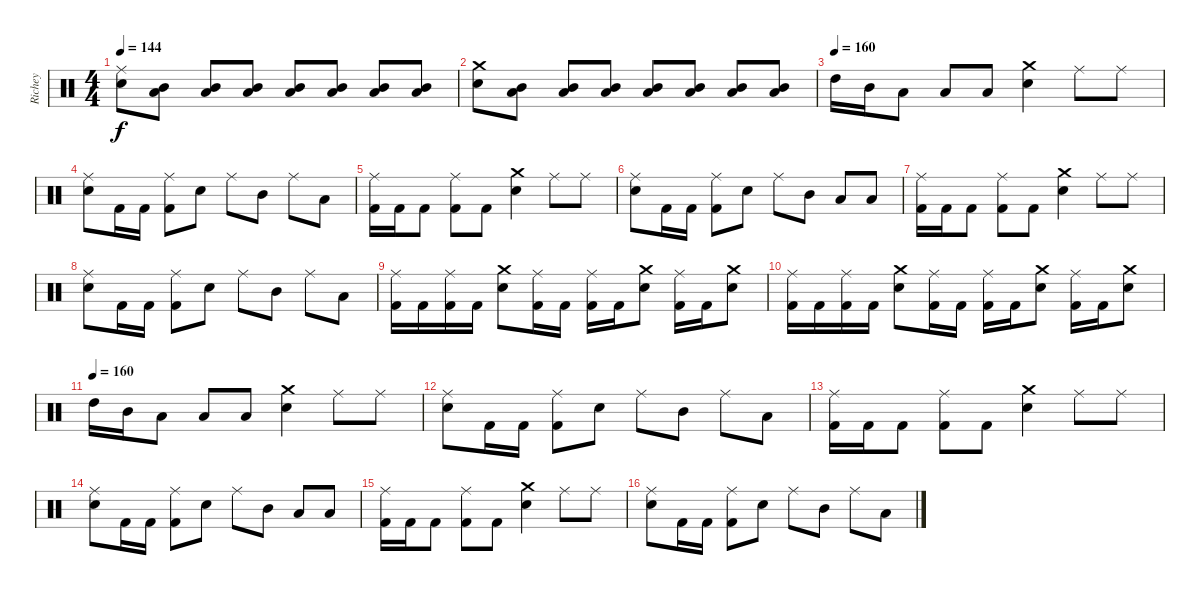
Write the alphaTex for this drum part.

\track ("Richey" "Richey") {instrument percussion}
\staff {score}
\articulation defaults
\ts (4 4)
\tempo 144
\clef neutral
\ks c
("Ride (middle)" "Snare (hit) 2").8{dy f} ("Mid Tom (hit)" "Low Tom (hit)").8 ("Mid Tom (hit)" "Low Tom (hit)").8 ("Mid Tom (hit)" "Low Tom (hit)").8 ("Mid Tom (hit)" "Low Tom (hit)").8 ("Mid Tom (hit)" "Low Tom (hit)").8 ("Mid Tom (hit)" "Low Tom (hit)").8 ("Mid Tom (hit)" "Low Tom (hit)").8 |
("Crash medium (hit)" "Snare (hit) 2").8 ("Mid Tom (hit)" "Low Tom (hit)").8 ("Mid Tom (hit)" "Low Tom (hit)").8 ("Mid Tom (hit)" "Low Tom (hit)").8 ("Mid Tom (hit)" "Low Tom (hit)").8 ("Mid Tom (hit)" "Low Tom (hit)").8 ("Mid Tom (hit)" "Low Tom (hit)").8 ("Mid Tom (hit)" "Low Tom (hit)").8 |
\tempo (160)
"High Tom (hit)".16 "Mid Tom (hit)".16 "Low Tom (hit)".8 "Low Tom (hit)".8 "Low Tom (hit)".8 ("Crash medium (hit)" "Snare (hit) 2").4 "Ride (middle)".8 "Ride (middle)".8 |
("Ride (middle)" "Snare (hit) 2").8 "Kick (hit) 2".16 "Kick (hit) 2".16 ("Ride (middle)" "Kick (hit) 2").8 "Snare (hit) 2".8 "Ride (middle)".8 "Mid Tom (hit)".8 "Ride (middle)".8 "Low Tom (hit)".8 |
("Ride (middle)" "Kick (hit) 2").16 "Kick (hit) 2".16 "Kick (hit) 2".8 ("Ride (middle)" "Kick (hit) 2").8 "Kick (hit) 2".8 ("Crash medium (hit)" "Snare (hit) 2").4 "Ride (middle)".8 "Ride (middle)".8 |
("Ride (middle)" "Snare (hit) 2").8 "Kick (hit) 2".16 "Kick (hit) 2".16 ("Ride (middle)" "Kick (hit) 2").8 "Snare (hit) 2".8 "Ride (middle)".8 "Mid Tom (hit)".8 "Low Tom (hit)".8 "Low Tom (hit)".8 |
("Ride (middle)" "Kick (hit) 2").16 "Kick (hit) 2".16 "Kick (hit) 2".8 ("Ride (middle)" "Kick (hit) 2").8 "Kick (hit) 2".8 ("Crash medium (hit)" "Snare (hit) 2").4 "Ride (middle)".8 "Ride (middle)".8 |
("Ride (middle)" "Snare (hit) 2").8 "Kick (hit) 2".16 "Kick (hit) 2".16 ("Ride (middle)" "Kick (hit) 2").8 "Snare (hit) 2".8 "Ride (middle)".8 "Mid Tom (hit)".8 "Ride (middle)".8 "Low Tom (hit)".8 |
("Ride (middle)" "Kick (hit) 2").16 "Kick (hit) 2".16 ("Ride (middle)" "Kick (hit) 2").16 "Kick (hit) 2".16 ("Crash medium (hit)" "Snare (hit) 2").8 ("Ride (middle)" "Kick (hit) 2").16 "Kick (hit) 2".16 ("Ride (middle)" "Kick (hit) 2").16 "Kick (hit) 2".16 ("Crash medium (hit)" "Snare (hit) 2").8 ("Ride (middle)" "Kick (hit) 2").16 "Kick (hit) 2".16 ("Crash medium (hit)" "Snare (hit) 2").8 |
("Ride (middle)" "Kick (hit) 2").16 "Kick (hit) 2".16 ("Ride (middle)" "Kick (hit) 2").16 "Kick (hit) 2".16 ("Crash medium (hit)" "Snare (hit) 2").8 ("Ride (middle)" "Kick (hit) 2").16 "Kick (hit) 2".16 ("Ride (middle)" "Kick (hit) 2").16 "Kick (hit) 2".16 ("Crash medium (hit)" "Snare (hit) 2").8 ("Ride (middle)" "Kick (hit) 2").16 "Kick (hit) 2".16 ("Crash medium (hit)" "Snare (hit) 2").8 |
\tempo (160)
"High Tom (hit)".16 "Mid Tom (hit)".16 "Low Tom (hit)".8 "Low Tom (hit)".8 "Low Tom (hit)".8 ("Crash medium (hit)" "Snare (hit) 2").4 "Ride (middle)".8 "Ride (middle)".8 |
("Ride (middle)" "Snare (hit) 2").8 "Kick (hit) 2".16 "Kick (hit) 2".16 ("Ride (middle)" "Kick (hit) 2").8 "Snare (hit) 2".8 "Ride (middle)".8 "Mid Tom (hit)".8 "Ride (middle)".8 "Low Tom (hit)".8 |
("Ride (middle)" "Kick (hit) 2").16 "Kick (hit) 2".16 "Kick (hit) 2".8 ("Ride (middle)" "Kick (hit) 2").8 "Kick (hit) 2".8 ("Crash medium (hit)" "Snare (hit) 2").4 "Ride (middle)".8 "Ride (middle)".8 |
("Ride (middle)" "Snare (hit) 2").8 "Kick (hit) 2".16 "Kick (hit) 2".16 ("Ride (middle)" "Kick (hit) 2").8 "Snare (hit) 2".8 "Ride (middle)".8 "Mid Tom (hit)".8 "Low Tom (hit)".8 "Low Tom (hit)".8 |
("Ride (middle)" "Kick (hit) 2").16 "Kick (hit) 2".16 "Kick (hit) 2".8 ("Ride (middle)" "Kick (hit) 2").8 "Kick (hit) 2".8 ("Crash medium (hit)" "Snare (hit) 2").4 "Ride (middle)".8 "Ride (middle)".8 |
("Ride (middle)" "Snare (hit) 2").8 "Kick (hit) 2".16 "Kick (hit) 2".16 ("Ride (middle)" "Kick (hit) 2").8 "Snare (hit) 2".8 "Ride (middle)".8 "Mid Tom (hit)".8 "Ride (middle)".8 "Low Tom (hit)".8
